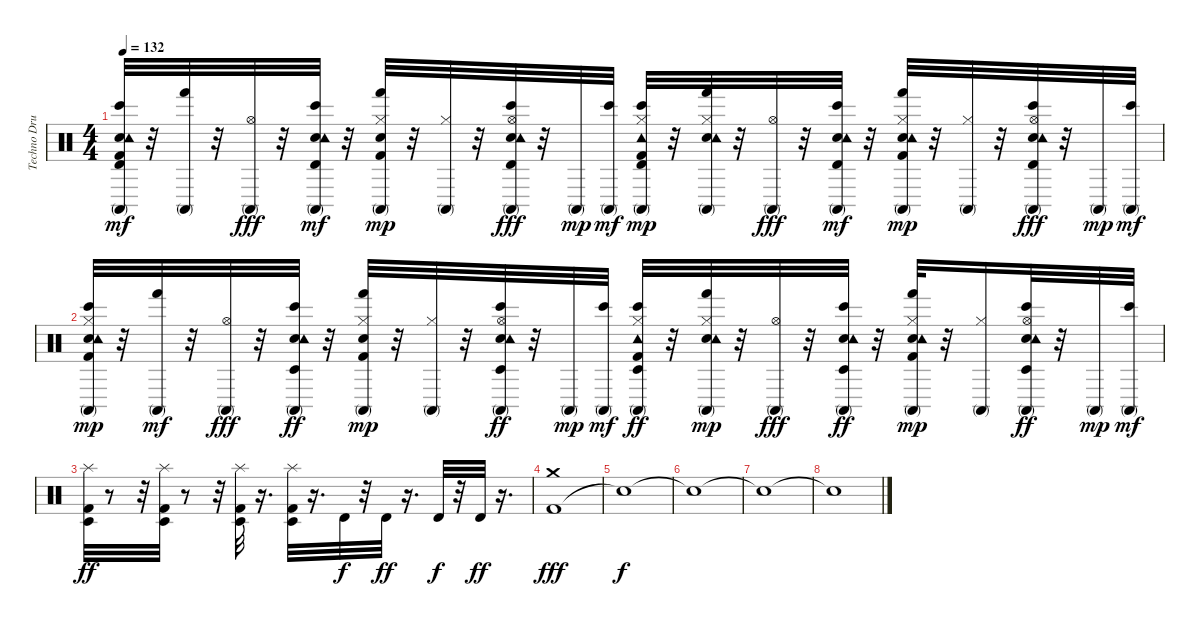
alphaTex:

\track ("Techno Drums" "Techno Dru") {instrument percussion}
\staff {score}
\articulation defaults
\ts (4 4)
\tempo 132
\clef neutral
\ks c
("Kick (hit) 2" "Hand Clap (hit)" "Tambourine (hit)" "Conga high (mute)" "Bongo High (hit)" "Timbale high (hit)").32{dy mf} r.32 ("Conga high (mute)" "Hand (hit)").32 r.32 ("Conga high (mute)" "Hi-Hat (open)").32{dy fff} r.32 ("Hand Clap (hit)" "Tambourine (hit)" "Conga high (mute)" "Bongo High (hit)" "Timbale high (hit)").32{dy mf} r.32 ("Kick (hit) 2" "Hand Clap (hit)" "Conga high (mute)" "Hand (hit)" "Hi-Hat (closed)").32{dy mp} r.32 ("Conga high (mute)" "Hi-Hat (closed)").32 r.32 ("Hand Clap (hit)" "Tambourine (hit)" "Conga high (mute)" "Bongo High (hit)" "Timbale high (hit)" "Hi-Hat (open)").32{dy fff} r.32 "Conga high (mute)".32{dy mp} ("Conga high (mute)" "Bongo High (hit)").32{dy mf} ("Kick (hit) 2" "Tambourine (hit)" "Conga high (mute)" "Bongo High (hit)" "Timbale high (hit)" "Hi-Hat (closed)").32{dy mp} r.32 ("Hand Clap (hit)" "Tambourine (hit)" "Conga high (mute)" "Hand (hit)" "Hi-Hat (closed)").32 r.32 ("Conga high (mute)" "Hi-Hat (open)").32{dy fff} r.32 ("Hand Clap (hit)" "Tambourine (hit)" "Conga high (mute)" "Bongo High (hit)" "Timbale high (hit)").32{dy mf} r.32 ("Kick (hit) 2" "Hand Clap (hit)" "Tambourine (hit)" "Conga high (mute)" "Hand (hit)" "Hi-Hat (closed)").32{dy mp} r.32 ("Conga high (mute)" "Hi-Hat (closed)").32 r.32 ("Hand Clap (hit)" "Tambourine (hit)" "Conga high (mute)" "Bongo High (hit)" "Timbale high (hit)" "Hi-Hat (open)").32{dy fff} r.32 "Conga high (mute)".32{dy mp} ("Conga high (mute)" "Bongo High (hit)").32{dy mf} |
("Kick (hit) 2" "Hand Clap (hit)" "Tambourine (hit)" "Conga high (mute)" "Bongo High (hit)" "Hi-Hat (closed)").32{dy mp} r.32 ("Conga high (mute)" "Hand (hit)").32{dy mf} r.32 ("Conga high (mute)" "Hi-Hat (open)").32{dy fff} r.32 ("Hand Clap (hit)" "Tambourine (hit)" "Conga high (mute)" "Bongo High (hit)" "Timbale low (hit)").32{dy ff} r.32 ("Kick (hit) 2" "Hand Clap (hit)" "Conga high (mute)" "Hand (hit)" "Hi-Hat (closed)").32{dy mp} r.32 ("Conga high (mute)" "Hi-Hat (closed)").32 r.32 ("Hand Clap (hit)" "Tambourine (hit)" "Conga high (mute)" "Bongo High (hit)" "Hi-Hat (open)" "Timbale low (hit)").32{dy ff} r.32 "Conga high (mute)".32{dy mp} ("Conga high (mute)" "Bongo High (hit)").32{dy mf} ("Kick (hit) 2" "Tambourine (hit)" "Conga high (mute)" "Bongo High (hit)" "Hi-Hat (closed)" "Timbale low (hit)").32{dy ff} r.32 ("Hand Clap (hit)" "Tambourine (hit)" "Conga high (mute)" "Hand (hit)" "Hi-Hat (closed)").32{dy mp} r.32 ("Conga high (mute)" "Hi-Hat (open)").32{dy fff} r.32 ("Hand Clap (hit)" "Tambourine (hit)" "Conga high (mute)" "Bongo High (hit)" "Timbale low (hit)").32{dy ff} r.32 ("Kick (hit) 2" "Hand Clap (hit)" "Tambourine (hit)" "Conga high (mute)" "Hand (hit)" "Hi-Hat (closed)").32{dy mp} r.32 ("Conga high (mute)" "Hi-Hat (closed)").16 ("Hand Clap (hit)" "Tambourine (hit)" "Conga high (mute)" "Bongo High (hit)" "Hi-Hat (open)" "Timbale low (hit)").32{dy ff} r.32 "Conga high (mute)".32{dy mp} ("Conga high (mute)" "Bongo High (hit)").32{dy mf} |
("Kick (hit) 2" "Timbale low (hit)" "Splash (hit)").32{dy ff} r.8 r.32 ("Kick (hit) 2" "Timbale low (hit)" "Splash (hit)").32 r.8 r.32 ("Kick (hit) 2" "Timbale low (hit)" "Splash (hit)").32 r.16{d} ("Timbale low (hit)" "Splash (hit)" "Kick (hit) 2").32 r.16{d} "Timbale high (hit)".32{dy f} r.32 "Timbale high (hit)".32{dy ff} r.16{d} "Timbale high (hit)".32{dy f} r.32 "Timbale high (hit)".32{dy ff} r.16{d} |
("Kick (hit) 2" "Crash medium (hit)").1{dy fff} |
"Snare (hit)"{t}.1{dy f} |
"Snare (hit)"{t}.1 |
"Snare (hit)"{t}.1 |
"Snare (hit)"{t}.1
